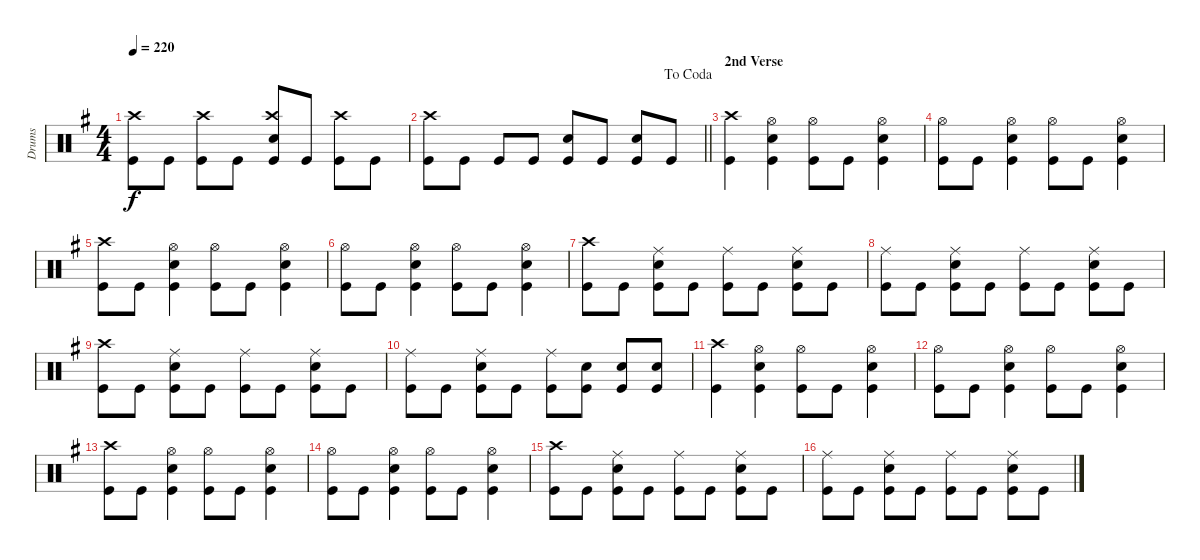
\track ("Drums" "Drums") {instrument percussion}
\staff {score}
\articulation defaults
\ts (4 4)
\tempo 220
\clef neutral
\ks eminor
("Kick (hit)" "Crash high (hit)").8{dy f} "Kick (hit)".8 ("Kick (hit)" "Crash high (hit)").8 "Kick (hit)".8 ("Kick (hit)" "Snare (hit) 2" "Crash high (hit)").8 "Kick (hit)".8 ("Kick (hit)" "Crash high (hit)").8 "Kick (hit)".8 |
\jump dacoda
\barLineRight lightlight
("Kick (hit)" "Crash high (hit)").8 "Kick (hit)".8 "Kick (hit)".8 "Kick (hit)".8 ("Kick (hit)" "Snare (hit) 2").8 "Kick (hit)".8 ("Kick (hit)" "Snare (hit) 2").8 "Kick (hit)".8 |
\section ("" "2nd Verse")
("Kick (hit)" "Crash high (hit)").4 ("Snare (hit) 2" "Kick (hit)" "Hi-Hat (open)").4 ("Kick (hit)" "Hi-Hat (open)").8 "Kick (hit)".8 ("Kick (hit)" "Snare (hit) 2" "Hi-Hat (open)").4 |
("Kick (hit)" "Hi-Hat (open)").8 "Kick (hit)".8 ("Kick (hit)" "Snare (hit) 2" "Hi-Hat (open)").4 ("Kick (hit)" "Hi-Hat (open)").8 "Kick (hit)".8 ("Kick (hit)" "Snare (hit) 2" "Hi-Hat (open)").4 |
("Kick (hit)" "Crash high (hit)").8 "Kick (hit)".8 ("Snare (hit) 2" "Kick (hit)" "Hi-Hat (open)").4 ("Kick (hit)" "Hi-Hat (open)").8 "Kick (hit)".8 ("Kick (hit)" "Snare (hit) 2" "Hi-Hat (open)").4 |
("Kick (hit)" "Hi-Hat (open)").8 "Kick (hit)".8 ("Kick (hit)" "Snare (hit) 2" "Hi-Hat (open)").4 ("Kick (hit)" "Hi-Hat (open)").8 "Kick (hit)".8 ("Kick (hit)" "Snare (hit) 2" "Hi-Hat (open)").4 |
("Kick (hit)" "Crash high (hit)").8 "Kick (hit)".8 ("Snare (hit) 2" "Kick (hit)" "Ride (middle)").8 "Kick (hit)".8 ("Kick (hit)" "Ride (middle)").8 "Kick (hit)".8 ("Kick (hit)" "Snare (hit) 2" "Ride (middle)").8 "Kick (hit)".8 |
("Kick (hit)" "Ride (middle)").8 "Kick (hit)".8 ("Kick (hit)" "Snare (hit) 2" "Ride (middle)").8 "Kick (hit)".8 ("Kick (hit)" "Ride (middle)").8 "Kick (hit)".8 ("Kick (hit)" "Snare (hit) 2" "Ride (middle)").8 "Kick (hit)".8 |
("Kick (hit)" "Crash high (hit)").8 "Kick (hit)".8 ("Snare (hit) 2" "Kick (hit)" "Ride (middle)").8 "Kick (hit)".8 ("Kick (hit)" "Ride (middle)").8 "Kick (hit)".8 ("Kick (hit)" "Snare (hit) 2" "Ride (middle)").8 "Kick (hit)".8 |
("Kick (hit)" "Ride (middle)").8 "Kick (hit)".8 ("Kick (hit)" "Snare (hit) 2" "Ride (middle)").8 "Kick (hit)".8 ("Kick (hit)" "Ride (middle)").8 ("Kick (hit)" "Snare (hit) 2").8 ("Kick (hit)" "Snare (hit) 2").8 ("Kick (hit)" "Snare (hit) 2").8 |
("Kick (hit)" "Crash high (hit)").4 ("Snare (hit) 2" "Kick (hit)" "Hi-Hat (open)").4 ("Kick (hit)" "Hi-Hat (open)").8 "Kick (hit)".8 ("Kick (hit)" "Snare (hit) 2" "Hi-Hat (open)").4 |
("Kick (hit)" "Hi-Hat (open)").8 "Kick (hit)".8 ("Kick (hit)" "Snare (hit) 2" "Hi-Hat (open)").4 ("Kick (hit)" "Hi-Hat (open)").8 "Kick (hit)".8 ("Kick (hit)" "Snare (hit) 2" "Hi-Hat (open)").4 |
("Kick (hit)" "Crash high (hit)").8 "Kick (hit)".8 ("Snare (hit) 2" "Kick (hit)" "Hi-Hat (open)").4 ("Kick (hit)" "Hi-Hat (open)").8 "Kick (hit)".8 ("Kick (hit)" "Snare (hit) 2" "Hi-Hat (open)").4 |
("Kick (hit)" "Hi-Hat (open)").8 "Kick (hit)".8 ("Kick (hit)" "Snare (hit) 2" "Hi-Hat (open)").4 ("Kick (hit)" "Hi-Hat (open)").8 "Kick (hit)".8 ("Kick (hit)" "Snare (hit) 2" "Hi-Hat (open)").4 |
("Kick (hit)" "Crash high (hit)").8 "Kick (hit)".8 ("Snare (hit) 2" "Kick (hit)" "Ride (middle)").8 "Kick (hit)".8 ("Kick (hit)" "Ride (middle)").8 "Kick (hit)".8 ("Kick (hit)" "Snare (hit) 2" "Ride (middle)").8 "Kick (hit)".8 |
("Kick (hit)" "Ride (middle)").8 "Kick (hit)".8 ("Kick (hit)" "Snare (hit) 2" "Ride (middle)").8 "Kick (hit)".8 ("Kick (hit)" "Ride (middle)").8 "Kick (hit)".8 ("Kick (hit)" "Snare (hit) 2" "Ride (middle)").8 "Kick (hit)".8
